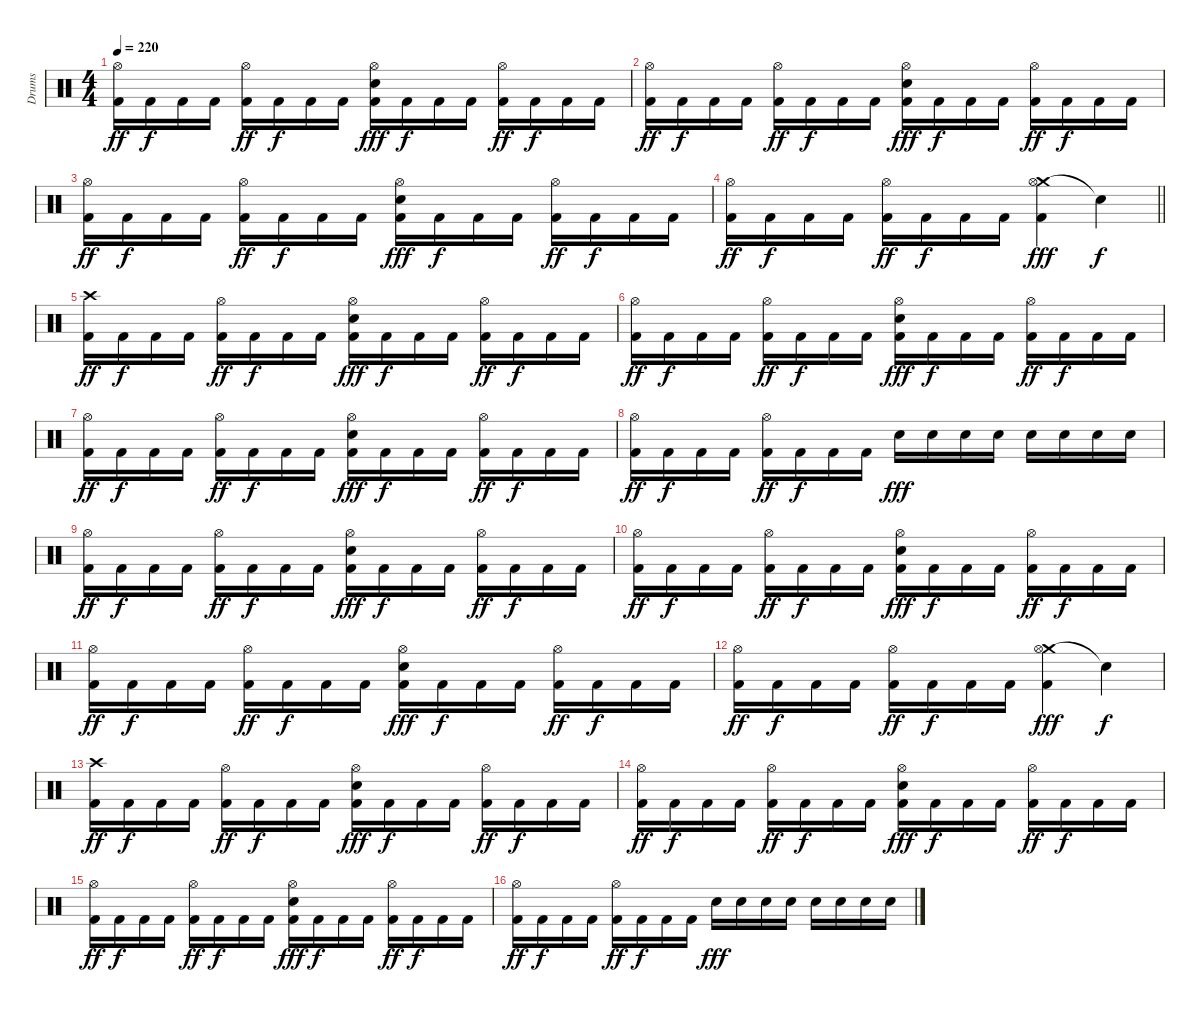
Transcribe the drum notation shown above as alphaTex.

\track ("Drums" "Drums") {instrument percussion}
\staff {score}
\articulation defaults
\ts (4 4)
\tempo 220
\clef neutral
\ks c
("Hi-Hat (open)" "Kick (hit) 2").16{dy ff} "Kick (hit) 2".16{dy f} "Kick (hit) 2".16 "Kick (hit) 2".16 ("Hi-Hat (open)" "Kick (hit) 2").16{dy ff} "Kick (hit) 2".16{dy f} "Kick (hit) 2".16 "Kick (hit) 2".16 ("Hi-Hat (open)" "Snare (hit) 2" "Kick (hit) 2").16{dy fff} "Kick (hit) 2".16{dy f} "Kick (hit) 2".16 "Kick (hit) 2".16 ("Hi-Hat (open)" "Kick (hit) 2").16{dy ff} "Kick (hit) 2".16{dy f} "Kick (hit) 2".16 "Kick (hit) 2".16 |
("Hi-Hat (open)" "Kick (hit) 2").16{dy ff} "Kick (hit) 2".16{dy f} "Kick (hit) 2".16 "Kick (hit) 2".16 ("Hi-Hat (open)" "Kick (hit) 2").16{dy ff} "Kick (hit) 2".16{dy f} "Kick (hit) 2".16 "Kick (hit) 2".16 ("Hi-Hat (open)" "Snare (hit) 2" "Kick (hit) 2").16{dy fff} "Kick (hit) 2".16{dy f} "Kick (hit) 2".16 "Kick (hit) 2".16 ("Hi-Hat (open)" "Kick (hit) 2").16{dy ff} "Kick (hit) 2".16{dy f} "Kick (hit) 2".16 "Kick (hit) 2".16 |
("Hi-Hat (open)" "Kick (hit) 2").16{dy ff} "Kick (hit) 2".16{dy f} "Kick (hit) 2".16 "Kick (hit) 2".16 ("Hi-Hat (open)" "Kick (hit) 2").16{dy ff} "Kick (hit) 2".16{dy f} "Kick (hit) 2".16 "Kick (hit) 2".16 ("Hi-Hat (open)" "Snare (hit) 2" "Kick (hit) 2").16{dy fff} "Kick (hit) 2".16{dy f} "Kick (hit) 2".16 "Kick (hit) 2".16 ("Hi-Hat (open)" "Kick (hit) 2").16{dy ff} "Kick (hit) 2".16{dy f} "Kick (hit) 2".16 "Kick (hit) 2".16 |
\barLineRight lightlight
("Hi-Hat (open)" "Kick (hit) 2").16{dy ff} "Kick (hit) 2".16{dy f} "Kick (hit) 2".16 "Kick (hit) 2".16 ("Hi-Hat (open)" "Kick (hit) 2").16{dy ff} "Kick (hit) 2".16{dy f} "Kick (hit) 2".16 "Kick (hit) 2".16 ("Crash medium (hit)" "Hi-Hat (open)" "Kick (hit) 2").4{dy fff} "Snare (hit)"{t}.4{dy f} |
("Crash high (hit)" "Kick (hit) 2").16{dy ff} "Kick (hit) 2".16{dy f} "Kick (hit) 2".16 "Kick (hit) 2".16 ("Hi-Hat (open)" "Kick (hit) 2").16{dy ff} "Kick (hit) 2".16{dy f} "Kick (hit) 2".16 "Kick (hit) 2".16 ("Hi-Hat (open)" "Snare (hit) 2" "Kick (hit) 2").16{dy fff} "Kick (hit) 2".16{dy f} "Kick (hit) 2".16 "Kick (hit) 2".16 ("Hi-Hat (open)" "Kick (hit) 2").16{dy ff} "Kick (hit) 2".16{dy f} "Kick (hit) 2".16 "Kick (hit) 2".16 |
("Hi-Hat (open)" "Kick (hit) 2").16{dy ff} "Kick (hit) 2".16{dy f} "Kick (hit) 2".16 "Kick (hit) 2".16 ("Hi-Hat (open)" "Kick (hit) 2").16{dy ff} "Kick (hit) 2".16{dy f} "Kick (hit) 2".16 "Kick (hit) 2".16 ("Hi-Hat (open)" "Snare (hit) 2" "Kick (hit) 2").16{dy fff} "Kick (hit) 2".16{dy f} "Kick (hit) 2".16 "Kick (hit) 2".16 ("Hi-Hat (open)" "Kick (hit) 2").16{dy ff} "Kick (hit) 2".16{dy f} "Kick (hit) 2".16 "Kick (hit) 2".16 |
("Hi-Hat (open)" "Kick (hit) 2").16{dy ff} "Kick (hit) 2".16{dy f} "Kick (hit) 2".16 "Kick (hit) 2".16 ("Hi-Hat (open)" "Kick (hit) 2").16{dy ff} "Kick (hit) 2".16{dy f} "Kick (hit) 2".16 "Kick (hit) 2".16 ("Hi-Hat (open)" "Snare (hit) 2" "Kick (hit) 2").16{dy fff} "Kick (hit) 2".16{dy f} "Kick (hit) 2".16 "Kick (hit) 2".16 ("Hi-Hat (open)" "Kick (hit) 2").16{dy ff} "Kick (hit) 2".16{dy f} "Kick (hit) 2".16 "Kick (hit) 2".16 |
("Hi-Hat (open)" "Kick (hit) 2").16{dy ff} "Kick (hit) 2".16{dy f} "Kick (hit) 2".16 "Kick (hit) 2".16 ("Hi-Hat (open)" "Kick (hit) 2").16{dy ff} "Kick (hit) 2".16{dy f} "Kick (hit) 2".16 "Kick (hit) 2".16 "Snare (hit) 2".16{dy fff} "Snare (hit) 2".16 "Snare (hit) 2".16 "Snare (hit) 2".16 "Snare (hit) 2".16 "Snare (hit) 2".16 "Snare (hit) 2".16 "Snare (hit) 2".16 |
("Hi-Hat (open)" "Kick (hit) 2").16{dy ff} "Kick (hit) 2".16{dy f} "Kick (hit) 2".16 "Kick (hit) 2".16 ("Hi-Hat (open)" "Kick (hit) 2").16{dy ff} "Kick (hit) 2".16{dy f} "Kick (hit) 2".16 "Kick (hit) 2".16 ("Hi-Hat (open)" "Snare (hit) 2" "Kick (hit) 2").16{dy fff} "Kick (hit) 2".16{dy f} "Kick (hit) 2".16 "Kick (hit) 2".16 ("Hi-Hat (open)" "Kick (hit) 2").16{dy ff} "Kick (hit) 2".16{dy f} "Kick (hit) 2".16 "Kick (hit) 2".16 |
("Hi-Hat (open)" "Kick (hit) 2").16{dy ff} "Kick (hit) 2".16{dy f} "Kick (hit) 2".16 "Kick (hit) 2".16 ("Hi-Hat (open)" "Kick (hit) 2").16{dy ff} "Kick (hit) 2".16{dy f} "Kick (hit) 2".16 "Kick (hit) 2".16 ("Hi-Hat (open)" "Snare (hit) 2" "Kick (hit) 2").16{dy fff} "Kick (hit) 2".16{dy f} "Kick (hit) 2".16 "Kick (hit) 2".16 ("Hi-Hat (open)" "Kick (hit) 2").16{dy ff} "Kick (hit) 2".16{dy f} "Kick (hit) 2".16 "Kick (hit) 2".16 |
("Hi-Hat (open)" "Kick (hit) 2").16{dy ff} "Kick (hit) 2".16{dy f} "Kick (hit) 2".16 "Kick (hit) 2".16 ("Hi-Hat (open)" "Kick (hit) 2").16{dy ff} "Kick (hit) 2".16{dy f} "Kick (hit) 2".16 "Kick (hit) 2".16 ("Hi-Hat (open)" "Snare (hit) 2" "Kick (hit) 2").16{dy fff} "Kick (hit) 2".16{dy f} "Kick (hit) 2".16 "Kick (hit) 2".16 ("Hi-Hat (open)" "Kick (hit) 2").16{dy ff} "Kick (hit) 2".16{dy f} "Kick (hit) 2".16 "Kick (hit) 2".16 |
("Hi-Hat (open)" "Kick (hit) 2").16{dy ff} "Kick (hit) 2".16{dy f} "Kick (hit) 2".16 "Kick (hit) 2".16 ("Hi-Hat (open)" "Kick (hit) 2").16{dy ff} "Kick (hit) 2".16{dy f} "Kick (hit) 2".16 "Kick (hit) 2".16 ("Crash medium (hit)" "Hi-Hat (open)" "Kick (hit) 2").4{dy fff} "Snare (hit)"{t}.4{dy f} |
("Crash high (hit)" "Kick (hit) 2").16{dy ff} "Kick (hit) 2".16{dy f} "Kick (hit) 2".16 "Kick (hit) 2".16 ("Hi-Hat (open)" "Kick (hit) 2").16{dy ff} "Kick (hit) 2".16{dy f} "Kick (hit) 2".16 "Kick (hit) 2".16 ("Hi-Hat (open)" "Snare (hit) 2" "Kick (hit) 2").16{dy fff} "Kick (hit) 2".16{dy f} "Kick (hit) 2".16 "Kick (hit) 2".16 ("Hi-Hat (open)" "Kick (hit) 2").16{dy ff} "Kick (hit) 2".16{dy f} "Kick (hit) 2".16 "Kick (hit) 2".16 |
("Hi-Hat (open)" "Kick (hit) 2").16{dy ff} "Kick (hit) 2".16{dy f} "Kick (hit) 2".16 "Kick (hit) 2".16 ("Hi-Hat (open)" "Kick (hit) 2").16{dy ff} "Kick (hit) 2".16{dy f} "Kick (hit) 2".16 "Kick (hit) 2".16 ("Hi-Hat (open)" "Snare (hit) 2" "Kick (hit) 2").16{dy fff} "Kick (hit) 2".16{dy f} "Kick (hit) 2".16 "Kick (hit) 2".16 ("Hi-Hat (open)" "Kick (hit) 2").16{dy ff} "Kick (hit) 2".16{dy f} "Kick (hit) 2".16 "Kick (hit) 2".16 |
("Hi-Hat (open)" "Kick (hit) 2").16{dy ff} "Kick (hit) 2".16{dy f} "Kick (hit) 2".16 "Kick (hit) 2".16 ("Hi-Hat (open)" "Kick (hit) 2").16{dy ff} "Kick (hit) 2".16{dy f} "Kick (hit) 2".16 "Kick (hit) 2".16 ("Hi-Hat (open)" "Snare (hit) 2" "Kick (hit) 2").16{dy fff} "Kick (hit) 2".16{dy f} "Kick (hit) 2".16 "Kick (hit) 2".16 ("Hi-Hat (open)" "Kick (hit) 2").16{dy ff} "Kick (hit) 2".16{dy f} "Kick (hit) 2".16 "Kick (hit) 2".16 |
("Hi-Hat (open)" "Kick (hit) 2").16{dy ff} "Kick (hit) 2".16{dy f} "Kick (hit) 2".16 "Kick (hit) 2".16 ("Hi-Hat (open)" "Kick (hit) 2").16{dy ff} "Kick (hit) 2".16{dy f} "Kick (hit) 2".16 "Kick (hit) 2".16 "Snare (hit) 2".16{dy fff} "Snare (hit) 2".16 "Snare (hit) 2".16 "Snare (hit) 2".16 "Snare (hit) 2".16 "Snare (hit) 2".16 "Snare (hit) 2".16 "Snare (hit) 2".16
